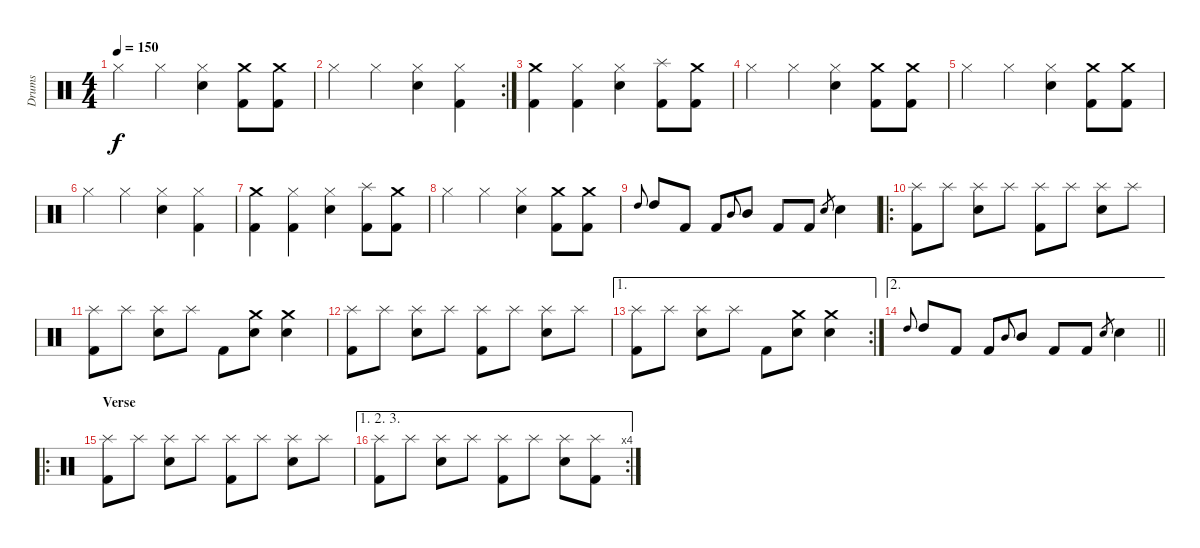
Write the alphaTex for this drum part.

\track ("Drums" "Drums") {instrument percussion}
\staff {score}
\articulation defaults
\ts (4 4)
\tempo 150
\clef neutral
\ks c "Hi-Hat (closed)".4{dy f} "Hi-Hat (closed)".4
("Hi-Hat (closed)" "Snare (hit) 2").4 ("Crash medium (hit)" "Kick (hit) 2").8 ("Crash medium (hit)" "Kick (hit) 2").8 |
\rc 2 "Hi-Hat (closed)".4 "Hi-Hat (closed)".4
("Hi-Hat (closed)" "Snare (hit) 2").4 ("Hi-Hat (closed)" "Kick (hit) 2").4 |
("Crash medium (hit)" "Kick (hit) 2").4 ("Hi-Hat (closed)" "Kick (hit) 2").4 ("Hi-Hat (closed)" "Snare (hit) 2").4 ("Splash (hit)" "Kick (hit) 2").8 ("Crash medium (hit)" "Kick (hit) 2").8 |
"Hi-Hat (closed)".4 "Hi-Hat (closed)".4 ("Hi-Hat (closed)" "Snare (hit) 2").4 ("Crash medium (hit)" "Kick (hit) 2").8 ("Crash medium (hit)" "Kick (hit) 2").8 |
"Hi-Hat (closed)".4 "Hi-Hat (closed)".4 ("Hi-Hat (closed)" "Snare (hit) 2").4 ("Crash medium (hit)" "Kick (hit) 2").8 ("Crash medium (hit)" "Kick (hit) 2").8 |
"Hi-Hat (closed)".4 "Hi-Hat (closed)".4 ("Hi-Hat (closed)" "Snare (hit) 2").4 ("Hi-Hat (closed)" "Kick (hit) 2").4 |
("Crash medium (hit)" "Kick (hit) 2").4 ("Hi-Hat (closed)" "Kick (hit) 2").4 ("Hi-Hat (closed)" "Snare (hit) 2").4 ("Splash (hit)" "Kick (hit) 2").8 ("Crash medium (hit)" "Kick (hit) 2").8 |
"Hi-Hat (closed)".4 "Hi-Hat (closed)".4 ("Hi-Hat (closed)" "Snare (hit) 2").4 ("Crash medium (hit)" "Kick (hit) 2").8 ("Crash medium (hit)" "Kick (hit) 2").8 |
"High Tom (hit)".8{gr onbeat} "High Tom (hit)".8 "Kick (hit) 2".8 "Kick (hit) 2".8 "Mid Tom (hit)".8{gr onbeat} "Mid Tom (hit)".8 "Kick (hit) 2".8 "Kick (hit) 2".8 "Snare (hit) 2".8{gr} "Snare (hit) 2".4 |
\ro
("Splash (hit)" "Kick (hit) 2").8 "Splash (hit)".8 ("Splash (hit)" "Snare (hit) 2").8 "Splash (hit)".8 ("Splash (hit)" "Kick (hit) 2").8 "Splash (hit)".8 ("Splash (hit)" "Snare (hit) 2").8 "Splash (hit)".8 |
("Splash (hit)" "Kick (hit) 2").8 "Splash (hit)".8 ("Splash (hit)" "Snare (hit) 2").8 "Splash (hit)".8 "Kick (hit) 2".8 ("Crash medium (hit)" "Snare (hit) 2").8 ("Crash medium (hit)" "Snare (hit) 2").4 |
("Splash (hit)" "Kick (hit) 2").8 "Splash (hit)".8 ("Splash (hit)" "Snare (hit) 2").8 "Splash (hit)".8 ("Splash (hit)" "Kick (hit) 2").8 "Splash (hit)".8 ("Splash (hit)" "Snare (hit) 2").8 "Splash (hit)".8 |
\ae 1
\rc 2
("Splash (hit)" "Kick (hit) 2").8 "Splash (hit)".8 ("Splash (hit)" "Snare (hit) 2").8 "Splash (hit)".8 "Kick (hit) 2".8 ("Crash medium (hit)" "Snare (hit) 2").8 ("Crash medium (hit)" "Snare (hit) 2").4 |
\ae 2
\barLineRight lightlight "High Tom (hit)".8{gr onbeat} "High Tom (hit)".8 "Kick (hit) 2".8 "Kick (hit) 2".8 "Mid Tom (hit)".8{gr onbeat} "Mid Tom (hit)".8 "Kick (hit) 2".8 "Kick (hit) 2".8 "Snare (hit) 2".8{gr} "Snare (hit) 2".4
|
\ro
\section ("" "Verse")
("Splash (hit)" "Kick (hit) 2").8 "Splash (hit)".8 ("Splash (hit)" "Snare (hit) 2").8 "Splash (hit)".8 ("Splash (hit)" "Kick (hit) 2").8 "Splash (hit)".8 ("Splash (hit)" "Snare (hit) 2").8 "Splash (hit)".8 |
\ae (1 2 3)
\rc 4
("Splash (hit)" "Kick (hit) 2").8 "Splash (hit)".8 ("Splash (hit)" "Snare (hit) 2").8 "Splash (hit)".8 ("Splash (hit)" "Kick (hit) 2").8 "Splash (hit)".8 ("Splash (hit)" "Snare (hit) 2").8 ("Splash (hit)" "Kick (hit) 2").8
